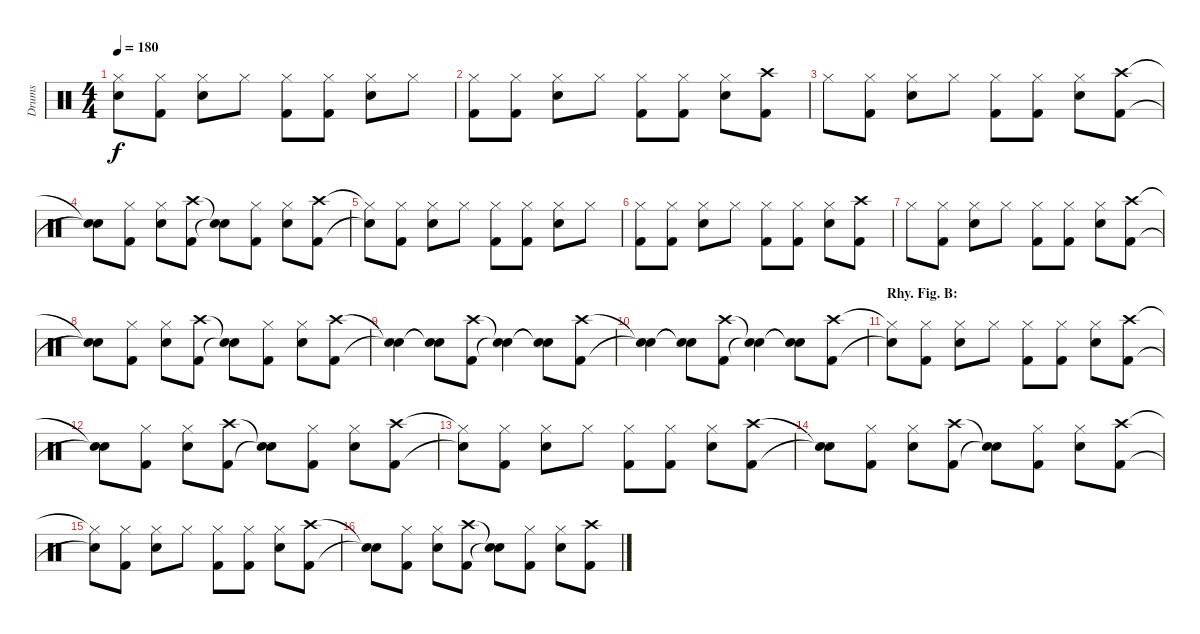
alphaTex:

\track ("Drums" "Drums") {instrument percussion}
\staff {score}
\articulation defaults
\ts (4 4)
\tempo 180
\clef neutral
\ks c
("Hi-Hat (closed)"{t} "Snare (hit)"{t}).8{dy f} ("Hi-Hat (closed)" "Kick (hit) 2").8 ("Hi-Hat (closed)" "Snare (hit) 2").8 "Hi-Hat (closed)".8 ("Hi-Hat (closed)" "Kick (hit) 2").8 ("Hi-Hat (closed)" "Kick (hit) 2").8 ("Hi-Hat (closed)" "Snare (hit) 2").8 "Hi-Hat (closed)".8 |
("Hi-Hat (closed)" "Kick (hit) 2").8 ("Hi-Hat (closed)" "Kick (hit) 2").8 ("Hi-Hat (closed)" "Snare (hit) 2").8 "Hi-Hat (closed)".8 ("Hi-Hat (closed)" "Kick (hit) 2").8 ("Hi-Hat (closed)" "Kick (hit) 2").8 ("Hi-Hat (closed)" "Snare (hit) 2").8 ("Crash high (hit)" "Kick (hit) 2").8 |
"Hi-Hat (closed)".8 ("Hi-Hat (closed)" "Kick (hit) 2").8 ("Hi-Hat (closed)" "Snare (hit) 2").8 "Hi-Hat (closed)".8 ("Hi-Hat (closed)" "Kick (hit) 2").8 ("Hi-Hat (closed)" "Kick (hit) 2").8 ("Hi-Hat (closed)" "Snare (hit) 2").8 ("Crash high (hit)" "Kick (hit) 2").8 |
("Snare (hit)"{t} "Snare (hit)"{t}).8 ("Hi-Hat (closed)" "Kick (hit) 2").8 ("Hi-Hat (closed)" "Snare (hit) 2").8 ("Crash high (hit)" "Kick (hit) 2").8 ("Snare (hit)"{t} "Snare (hit)"{t}).8 ("Hi-Hat (closed)" "Kick (hit) 2").8 ("Hi-Hat (closed)" "Snare (hit) 2").8 ("Crash high (hit)" "Kick (hit) 2").8 |
("Hi-Hat (closed)"{t} "Snare (hit)"{t}).8 ("Hi-Hat (closed)" "Kick (hit) 2").8 ("Hi-Hat (closed)" "Snare (hit) 2").8 "Hi-Hat (closed)".8 ("Hi-Hat (closed)" "Kick (hit) 2").8 ("Hi-Hat (closed)" "Kick (hit) 2").8 ("Hi-Hat (closed)" "Snare (hit) 2").8 "Hi-Hat (closed)".8 |
("Hi-Hat (closed)" "Kick (hit) 2").8 ("Hi-Hat (closed)" "Kick (hit) 2").8 ("Hi-Hat (closed)" "Snare (hit) 2").8 "Hi-Hat (closed)".8 ("Hi-Hat (closed)" "Kick (hit) 2").8 ("Hi-Hat (closed)" "Kick (hit) 2").8 ("Hi-Hat (closed)" "Snare (hit) 2").8 ("Crash high (hit)" "Kick (hit) 2").8 |
"Hi-Hat (closed)".8 ("Hi-Hat (closed)" "Kick (hit) 2").8 ("Hi-Hat (closed)" "Snare (hit) 2").8 "Hi-Hat (closed)".8 ("Hi-Hat (closed)" "Kick (hit) 2").8 ("Hi-Hat (closed)" "Kick (hit) 2").8 ("Hi-Hat (closed)" "Snare (hit) 2").8 ("Crash high (hit)" "Kick (hit) 2").8 |
("Snare (hit)"{t} "Snare (hit)"{t}).8 ("Hi-Hat (closed)" "Kick (hit) 2").8 ("Hi-Hat (closed)" "Snare (hit) 2").8 ("Crash high (hit)" "Kick (hit) 2").8 ("Snare (hit)"{t} "Snare (hit)"{t}).8 ("Hi-Hat (closed)" "Kick (hit) 2").8 ("Hi-Hat (closed)" "Snare (hit) 2").8 ("Crash high (hit)" "Kick (hit) 2").8 |
("Snare (hit)"{t} "Snare (hit)"{t}).4 ("Snare (hit)"{t} "Snare (hit)"{t}).8 ("Crash high (hit)" "Kick (hit) 2").8 ("Snare (hit)"{t} "Snare (hit)"{t}).4 ("Snare (hit)"{t} "Snare (hit)"{t}).8 ("Crash high (hit)" "Kick (hit) 2").8 |
("Snare (hit)"{t} "Snare (hit)"{t}).4 ("Snare (hit)"{t} "Snare (hit)"{t}).8 ("Crash high (hit)" "Kick (hit) 2").8 ("Snare (hit)"{t} "Snare (hit)"{t}).4 ("Snare (hit)"{t} "Snare (hit)"{t}).8 ("Crash high (hit)" "Kick (hit) 2").8 |
\section ("" "Rhy. Fig. B:")
("Hi-Hat (closed)"{t} "Snare (hit)"{t}).8 ("Hi-Hat (closed)" "Kick (hit) 2").8 ("Hi-Hat (closed)" "Snare (hit) 2").8 "Hi-Hat (closed)".8 ("Hi-Hat (closed)" "Kick (hit) 2").8 ("Hi-Hat (closed)" "Kick (hit) 2").8 ("Hi-Hat (closed)" "Snare (hit) 2").8 ("Crash high (hit)" "Kick (hit) 2").8 |
("Snare (hit)"{t} "Snare (hit)"{t}).8 ("Hi-Hat (closed)" "Kick (hit) 2").8 ("Hi-Hat (closed)" "Snare (hit) 2").8 ("Crash high (hit)" "Kick (hit) 2").8 ("Snare (hit)"{t} "Snare (hit)"{t}).8 ("Hi-Hat (closed)" "Kick (hit) 2").8 ("Hi-Hat (closed)" "Snare (hit) 2").8 ("Crash high (hit)" "Kick (hit) 2").8 |
("Hi-Hat (closed)"{t} "Snare (hit)"{t}).8 ("Hi-Hat (closed)" "Kick (hit) 2").8 ("Hi-Hat (closed)" "Snare (hit) 2").8 "Hi-Hat (closed)".8 ("Hi-Hat (closed)" "Kick (hit) 2").8 ("Hi-Hat (closed)" "Kick (hit) 2").8 ("Hi-Hat (closed)" "Snare (hit) 2").8 ("Crash high (hit)" "Kick (hit) 2").8 |
("Snare (hit)"{t} "Snare (hit)"{t}).8 ("Hi-Hat (closed)" "Kick (hit) 2").8 ("Hi-Hat (closed)" "Snare (hit) 2").8 ("Crash high (hit)" "Kick (hit) 2").8 ("Snare (hit)"{t} "Snare (hit)"{t}).8 ("Hi-Hat (closed)" "Kick (hit) 2").8 ("Hi-Hat (closed)" "Snare (hit) 2").8 ("Crash high (hit)" "Kick (hit) 2").8 |
("Hi-Hat (closed)"{t} "Snare (hit)"{t}).8 ("Hi-Hat (closed)" "Kick (hit) 2").8 ("Hi-Hat (closed)" "Snare (hit) 2").8 "Hi-Hat (closed)".8 ("Hi-Hat (closed)" "Kick (hit) 2").8 ("Hi-Hat (closed)" "Kick (hit) 2").8 ("Hi-Hat (closed)" "Snare (hit) 2").8 ("Crash high (hit)" "Kick (hit) 2").8 |
("Snare (hit)"{t} "Snare (hit)"{t}).8 ("Hi-Hat (closed)" "Kick (hit) 2").8 ("Hi-Hat (closed)" "Snare (hit) 2").8 ("Crash high (hit)" "Kick (hit) 2").8 ("Snare (hit)"{t} "Snare (hit)"{t}).8 ("Hi-Hat (closed)" "Kick (hit) 2").8 ("Hi-Hat (closed)" "Snare (hit) 2").8 ("Crash high (hit)" "Kick (hit) 2").8
